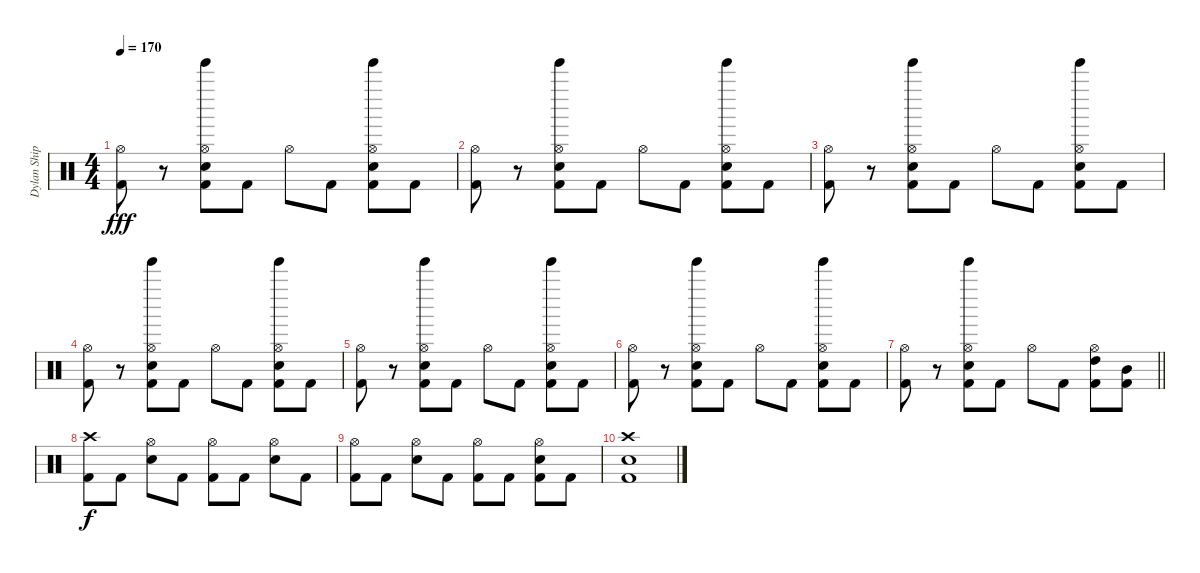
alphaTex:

\track ("Dylan Shippey" "Dylan Ship") {instrument percussion}
\staff {score}
\articulation defaults
\ts (4 4)
\tempo 170
\clef neutral
\ks c
("Hi-Hat (open)" "Kick (hit) 2").8{dy fff} r.8 ("Tinkle Bell (hit)" "Electric Snare (hit)" "Hi-Hat (open)" "Kick (hit) 2").8 "Kick (hit) 2".8 "Hi-Hat (open)".8 "Kick (hit) 2".8 ("Tinkle Bell (hit)" "Electric Snare (hit)" "Hi-Hat (open)" "Kick (hit) 2").8 "Kick (hit) 2".8 |
("Hi-Hat (open)" "Kick (hit) 2").8 r.8 ("Tinkle Bell (hit)" "Electric Snare (hit)" "Hi-Hat (open)" "Kick (hit) 2").8 "Kick (hit) 2".8 "Hi-Hat (open)".8 "Kick (hit) 2".8 ("Tinkle Bell (hit)" "Electric Snare (hit)" "Hi-Hat (open)" "Kick (hit) 2").8 "Kick (hit) 2".8 |
("Hi-Hat (open)" "Kick (hit) 2").8 r.8 ("Tinkle Bell (hit)" "Electric Snare (hit)" "Hi-Hat (open)" "Kick (hit) 2").8 "Kick (hit) 2".8 "Hi-Hat (open)".8 "Kick (hit) 2".8 ("Tinkle Bell (hit)" "Electric Snare (hit)" "Hi-Hat (open)" "Kick (hit) 2").8 "Kick (hit) 2".8 |
("Hi-Hat (open)" "Kick (hit) 2").8 r.8 ("Tinkle Bell (hit)" "Electric Snare (hit)" "Hi-Hat (open)" "Kick (hit) 2").8 "Kick (hit) 2".8 "Hi-Hat (open)".8 "Kick (hit) 2".8 ("Tinkle Bell (hit)" "Electric Snare (hit)" "Hi-Hat (open)" "Kick (hit) 2").8 "Kick (hit) 2".8 |
("Hi-Hat (open)" "Kick (hit) 2").8 r.8 ("Tinkle Bell (hit)" "Electric Snare (hit)" "Hi-Hat (open)" "Kick (hit) 2").8 "Kick (hit) 2".8 "Hi-Hat (open)".8 "Kick (hit) 2".8 ("Tinkle Bell (hit)" "Electric Snare (hit)" "Hi-Hat (open)" "Kick (hit) 2").8 "Kick (hit) 2".8 |
("Hi-Hat (open)" "Kick (hit) 2").8 r.8 ("Tinkle Bell (hit)" "Electric Snare (hit)" "Hi-Hat (open)" "Kick (hit) 2").8 "Kick (hit) 2".8 "Hi-Hat (open)".8 "Kick (hit) 2".8 ("Tinkle Bell (hit)" "Electric Snare (hit)" "Hi-Hat (open)" "Kick (hit) 2").8 "Kick (hit) 2".8 |
\barLineRight lightlight
("Hi-Hat (open)" "Kick (hit) 2").8 r.8 ("Tinkle Bell (hit)" "Electric Snare (hit)" "Hi-Hat (open)" "Kick (hit) 2").8 "Kick (hit) 2".8 "Hi-Hat (open)".8 "Kick (hit) 2".8 ("Hi-Hat (open)" "High Tom (hit)" "Kick (hit) 2").8 ("Mid Tom (hit)" "Kick (hit) 2").8 |
("Crash high (hit)" "Kick (hit) 2").8{dy f} "Kick (hit) 2".8 ("Hi-Hat (open)" "Electric Snare (hit)").8 "Kick (hit) 2".8 ("Hi-Hat (open)" "Kick (hit) 2").8 "Kick (hit) 2".8 ("Hi-Hat (open)" "Electric Snare (hit)").8 "Kick (hit) 2".8 |
("Hi-Hat (open)" "Kick (hit) 2").8 "Kick (hit) 2".8 ("Hi-Hat (open)" "Electric Snare (hit)").8 "Kick (hit) 2".8 ("Hi-Hat (open)" "Kick (hit) 2").8 "Kick (hit) 2".8 ("Hi-Hat (open)" "Electric Snare (hit)" "Kick (hit) 2").8 "Kick (hit) 2".8 |
("Crash high (hit)" "Electric Snare (hit)" "Kick (hit) 2").1
